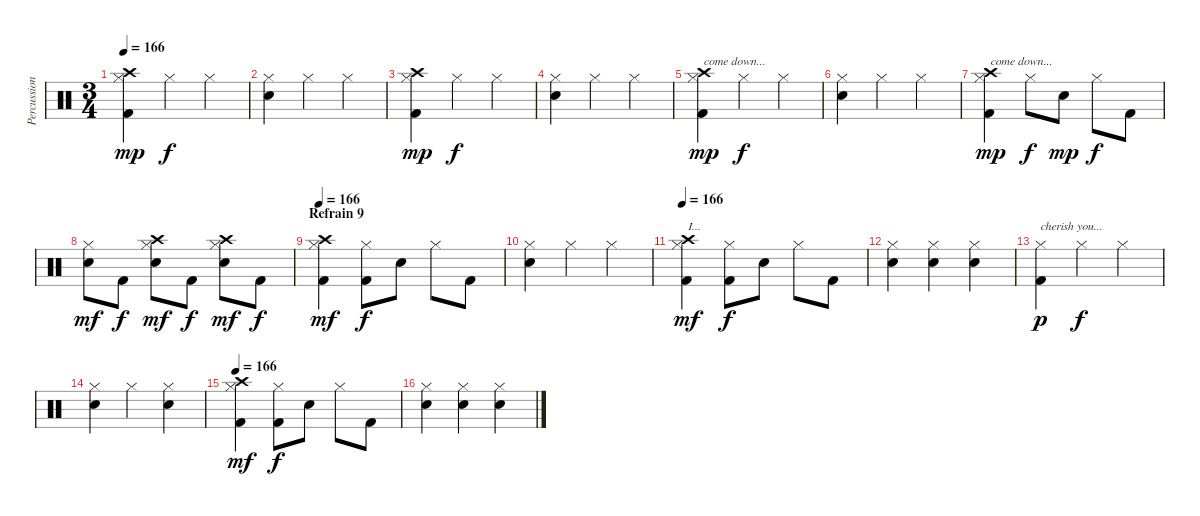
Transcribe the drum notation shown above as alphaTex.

\track ("Percussion" "Percussion") {instrument percussion}
\staff {score}
\articulation defaults
\ts (3 4)
\tempo 166
\clef neutral
\ks c
("Hi-Hat (closed)" "Crash high (hit)" "Kick (hit) 2").4{dy mp} "Hi-Hat (closed)".4{dy f} "Hi-Hat (closed)".4 |
("Hi-Hat (closed)" "Electric Snare (hit)").4 "Hi-Hat (closed)".4 "Hi-Hat (closed)".4 |
("Hi-Hat (closed)" "Crash high (hit)" "Kick (hit) 2").4{dy mp} "Hi-Hat (closed)".4{dy f} "Hi-Hat (closed)".4 |
("Hi-Hat (closed)" "Electric Snare (hit)").4 "Hi-Hat (closed)".4 "Hi-Hat (closed)".4 |
("Hi-Hat (closed)" "Crash high (hit)" "Kick (hit) 2").4{txt "come down..." dy mp} "Hi-Hat (closed)".4{dy f} "Hi-Hat (closed)".4 |
("Hi-Hat (closed)" "Electric Snare (hit)").4 "Hi-Hat (closed)".4 "Hi-Hat (closed)".4 |
("Hi-Hat (closed)" "Crash high (hit)" "Kick (hit) 2").4{txt "come down..." dy mp} "Hi-Hat (closed)".8{dy f} "Electric Snare (hit)".8{dy mp} "Hi-Hat (closed)".8{dy f} "Kick (hit) 2".8 |
("Hi-Hat (closed)" "Electric Snare (hit)").8{dy mf} "Kick (hit) 2".8{dy f} ("Hi-Hat (closed)" "Crash high (hit)" "Electric Snare (hit)").8{dy mf} "Kick (hit) 2".8{dy f} ("Hi-Hat (closed)" "Crash high (hit)" "Electric Snare (hit)").8{dy mf} "Kick (hit) 2".8{dy f} |
\section ("" "Refrain 9")
\tempo 166
("Hi-Hat (closed)" "Crash high (hit)" "Kick (hit) 2").4{dy mf} ("Hi-Hat (closed)" "Kick (hit) 2").8{dy f} "Electric Snare (hit)".8 "Hi-Hat (closed)".8 "Kick (hit) 2".8 |
("Hi-Hat (closed)" "Electric Snare (hit)").4 "Hi-Hat (closed)".4 "Hi-Hat (closed)".4 |
\tempo 166
("Hi-Hat (closed)" "Crash high (hit)" "Kick (hit) 2").4{txt "I..." dy mf} ("Hi-Hat (closed)" "Kick (hit) 2").8{dy f} "Electric Snare (hit)".8 "Hi-Hat (closed)".8 "Kick (hit) 2".8 |
("Hi-Hat (closed)" "Electric Snare (hit)").4 ("Hi-Hat (closed)" "Electric Snare (hit)").4 ("Hi-Hat (closed)" "Electric Snare (hit)").4 |
("Hi-Hat (closed)" "Kick (hit) 2").4{txt "cherish you..." dy p} "Hi-Hat (closed)".4{dy f} "Hi-Hat (closed)".4 |
("Hi-Hat (closed)" "Electric Snare (hit)").4 "Hi-Hat (closed)".4 ("Hi-Hat (closed)" "Electric Snare (hit)").4 |
\tempo 166
("Hi-Hat (closed)" "Crash high (hit)" "Kick (hit) 2").4{dy mf} ("Hi-Hat (closed)" "Kick (hit) 2").8{dy f} "Electric Snare (hit)".8 "Hi-Hat (closed)".8 "Kick (hit) 2".8 |
("Hi-Hat (closed)" "Electric Snare (hit)").4 ("Hi-Hat (closed)" "Electric Snare (hit)").4 ("Hi-Hat (closed)" "Electric Snare (hit)").4
